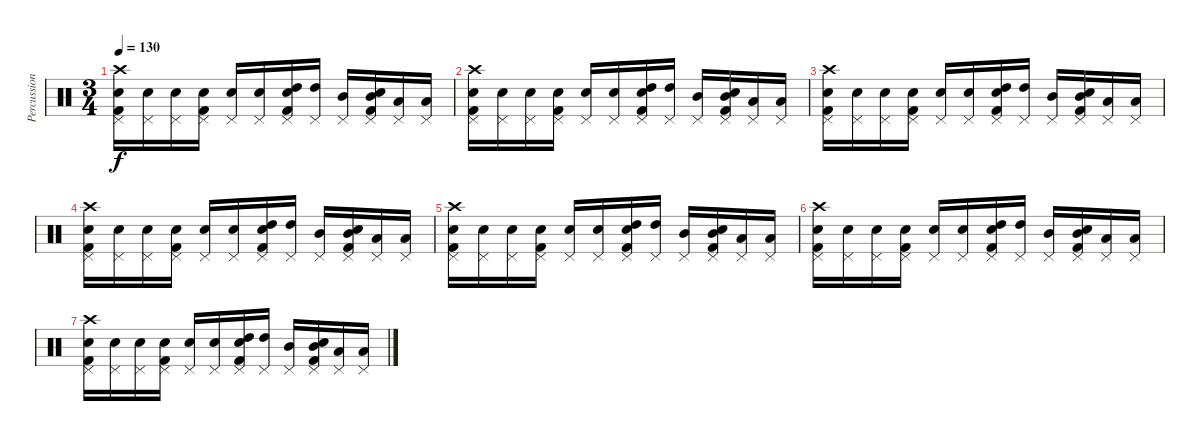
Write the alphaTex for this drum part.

\track ("Percussion" "Percussion") {instrument percussion}
\staff {score}
\articulation defaults
\ts (3 4)
\tempo 130
\clef neutral
\ks c
("Kick (hit) 2" "Pedal Hi-Hat (hit)" "Electric Snare (hit)" "Crash high (hit)").16{dy f} ("Pedal Hi-Hat (hit)" "Electric Snare (hit)").16 ("Pedal Hi-Hat (hit)" "Electric Snare (hit)").16 ("Kick (hit) 2" "Pedal Hi-Hat (hit)" "Electric Snare (hit)").16 ("Pedal Hi-Hat (hit)" "Electric Snare (hit)").16 ("Pedal Hi-Hat (hit)" "Electric Snare (hit)").16 ("Kick (hit) 2" "Pedal Hi-Hat (hit)" "Electric Snare (hit)" "High Tom (hit)").16 ("Pedal Hi-Hat (hit)" "High Tom (hit)").16 ("Pedal Hi-Hat (hit)" "Mid Tom (hit)").16 ("Kick (hit) 2" "Pedal Hi-Hat (hit)" "Electric Snare (hit)" "Mid Tom (hit)").16 ("Pedal Hi-Hat (hit)" "Low Tom (hit)").16 ("Pedal Hi-Hat (hit)" "Low Tom (hit)").16 |
("Kick (hit) 2" "Pedal Hi-Hat (hit)" "Electric Snare (hit)" "Crash high (hit)").16 ("Pedal Hi-Hat (hit)" "Electric Snare (hit)").16 ("Pedal Hi-Hat (hit)" "Electric Snare (hit)").16 ("Kick (hit) 2" "Pedal Hi-Hat (hit)" "Electric Snare (hit)").16 ("Pedal Hi-Hat (hit)" "Electric Snare (hit)").16 ("Pedal Hi-Hat (hit)" "Electric Snare (hit)").16 ("Kick (hit) 2" "Pedal Hi-Hat (hit)" "Electric Snare (hit)" "High Tom (hit)").16 ("Pedal Hi-Hat (hit)" "High Tom (hit)").16 ("Pedal Hi-Hat (hit)" "Mid Tom (hit)").16 ("Kick (hit) 2" "Pedal Hi-Hat (hit)" "Electric Snare (hit)" "Mid Tom (hit)").16 ("Pedal Hi-Hat (hit)" "Low Tom (hit)").16 ("Pedal Hi-Hat (hit)" "Low Tom (hit)").16 |
("Kick (hit) 2" "Pedal Hi-Hat (hit)" "Electric Snare (hit)" "Crash high (hit)").16 ("Pedal Hi-Hat (hit)" "Electric Snare (hit)").16 ("Pedal Hi-Hat (hit)" "Electric Snare (hit)").16 ("Kick (hit) 2" "Pedal Hi-Hat (hit)" "Electric Snare (hit)").16 ("Pedal Hi-Hat (hit)" "Electric Snare (hit)").16 ("Pedal Hi-Hat (hit)" "Electric Snare (hit)").16 ("Kick (hit) 2" "Pedal Hi-Hat (hit)" "Electric Snare (hit)" "High Tom (hit)").16 ("Pedal Hi-Hat (hit)" "High Tom (hit)").16 ("Pedal Hi-Hat (hit)" "Mid Tom (hit)").16 ("Kick (hit) 2" "Pedal Hi-Hat (hit)" "Electric Snare (hit)" "Mid Tom (hit)").16 ("Pedal Hi-Hat (hit)" "Low Tom (hit)").16 ("Pedal Hi-Hat (hit)" "Low Tom (hit)").16 |
("Kick (hit) 2" "Pedal Hi-Hat (hit)" "Electric Snare (hit)" "Crash high (hit)").16 ("Pedal Hi-Hat (hit)" "Electric Snare (hit)").16 ("Pedal Hi-Hat (hit)" "Electric Snare (hit)").16 ("Kick (hit) 2" "Pedal Hi-Hat (hit)" "Electric Snare (hit)").16 ("Pedal Hi-Hat (hit)" "Electric Snare (hit)").16 ("Pedal Hi-Hat (hit)" "Electric Snare (hit)").16 ("Kick (hit) 2" "Pedal Hi-Hat (hit)" "Electric Snare (hit)" "High Tom (hit)").16 ("Pedal Hi-Hat (hit)" "High Tom (hit)").16 ("Pedal Hi-Hat (hit)" "Mid Tom (hit)").16 ("Kick (hit) 2" "Pedal Hi-Hat (hit)" "Electric Snare (hit)" "Mid Tom (hit)").16 ("Pedal Hi-Hat (hit)" "Low Tom (hit)").16 ("Pedal Hi-Hat (hit)" "Low Tom (hit)").16 |
("Kick (hit) 2" "Pedal Hi-Hat (hit)" "Electric Snare (hit)" "Crash high (hit)").16 ("Pedal Hi-Hat (hit)" "Electric Snare (hit)").16 ("Pedal Hi-Hat (hit)" "Electric Snare (hit)").16 ("Kick (hit) 2" "Pedal Hi-Hat (hit)" "Electric Snare (hit)").16 ("Pedal Hi-Hat (hit)" "Electric Snare (hit)").16 ("Pedal Hi-Hat (hit)" "Electric Snare (hit)").16 ("Kick (hit) 2" "Pedal Hi-Hat (hit)" "Electric Snare (hit)" "High Tom (hit)").16 ("Pedal Hi-Hat (hit)" "High Tom (hit)").16 ("Pedal Hi-Hat (hit)" "Mid Tom (hit)").16 ("Kick (hit) 2" "Pedal Hi-Hat (hit)" "Electric Snare (hit)" "Mid Tom (hit)").16 ("Pedal Hi-Hat (hit)" "Low Tom (hit)").16 ("Pedal Hi-Hat (hit)" "Low Tom (hit)").16 |
("Kick (hit) 2" "Pedal Hi-Hat (hit)" "Electric Snare (hit)" "Crash high (hit)").16 ("Pedal Hi-Hat (hit)" "Electric Snare (hit)").16 ("Pedal Hi-Hat (hit)" "Electric Snare (hit)").16 ("Kick (hit) 2" "Pedal Hi-Hat (hit)" "Electric Snare (hit)").16 ("Pedal Hi-Hat (hit)" "Electric Snare (hit)").16 ("Pedal Hi-Hat (hit)" "Electric Snare (hit)").16 ("Kick (hit) 2" "Pedal Hi-Hat (hit)" "Electric Snare (hit)" "High Tom (hit)").16 ("Pedal Hi-Hat (hit)" "High Tom (hit)").16 ("Pedal Hi-Hat (hit)" "Mid Tom (hit)").16 ("Kick (hit) 2" "Pedal Hi-Hat (hit)" "Electric Snare (hit)" "Mid Tom (hit)").16 ("Pedal Hi-Hat (hit)" "Low Tom (hit)").16 ("Pedal Hi-Hat (hit)" "Low Tom (hit)").16 |
("Kick (hit) 2" "Pedal Hi-Hat (hit)" "Electric Snare (hit)" "Crash high (hit)").16 ("Pedal Hi-Hat (hit)" "Electric Snare (hit)").16 ("Pedal Hi-Hat (hit)" "Electric Snare (hit)").16 ("Kick (hit) 2" "Pedal Hi-Hat (hit)" "Electric Snare (hit)").16 ("Pedal Hi-Hat (hit)" "Electric Snare (hit)").16 ("Pedal Hi-Hat (hit)" "Electric Snare (hit)").16 ("Kick (hit) 2" "Pedal Hi-Hat (hit)" "Electric Snare (hit)" "High Tom (hit)").16 ("Pedal Hi-Hat (hit)" "High Tom (hit)").16 ("Pedal Hi-Hat (hit)" "Mid Tom (hit)").16 ("Kick (hit) 2" "Pedal Hi-Hat (hit)" "Electric Snare (hit)" "Mid Tom (hit)").16 ("Pedal Hi-Hat (hit)" "Low Tom (hit)").16 ("Pedal Hi-Hat (hit)" "Low Tom (hit)").16
